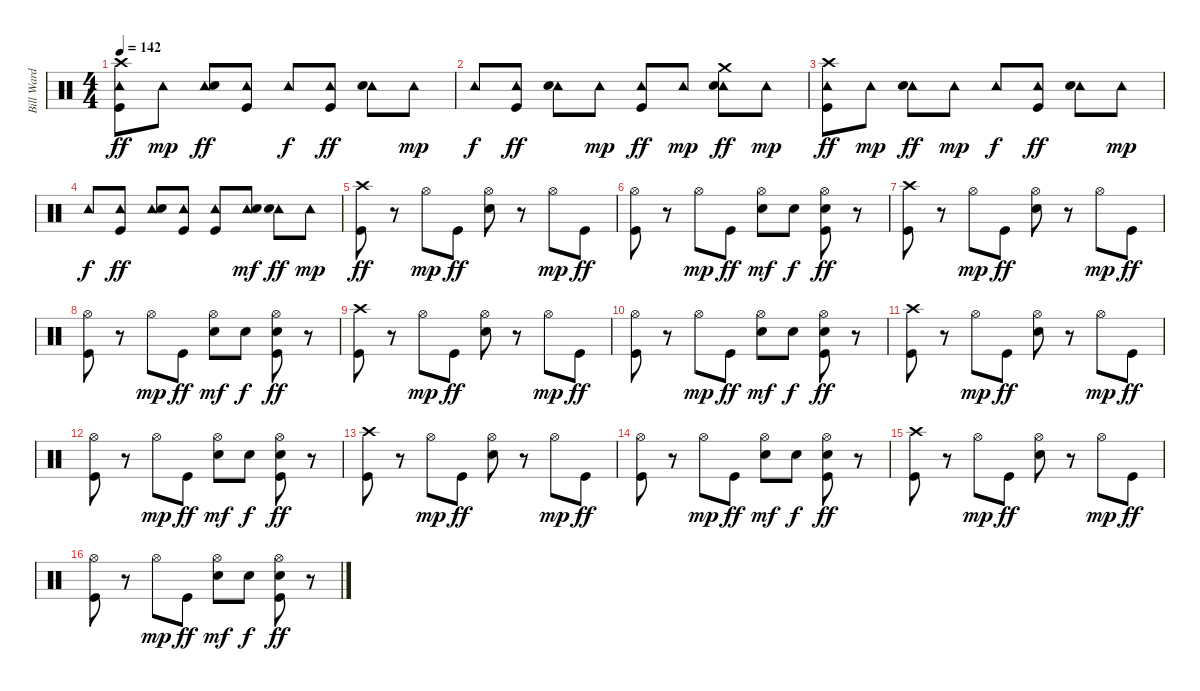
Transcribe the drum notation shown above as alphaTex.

\track ("Bill Ward" "Bill Ward") {instrument percussion}
\staff {score}
\articulation defaults
\ts (4 4)
\tempo 142
\clef neutral
\ks c
("Crash high (hit)" "Tambourine (hit)" "Kick (hit)").8{dy ff} "Tambourine (hit)".8{dy mp} ("Tambourine (hit)" "Snare (hit) 2").8{dy ff} ("Tambourine (hit)" "Kick (hit)").8 "Tambourine (hit)".8{dy f} ("Tambourine (hit)" "Kick (hit)").8{dy ff} ("Tambourine (hit)" "Snare (hit) 2").8 "Tambourine (hit)".8{dy mp} |
"Tambourine (hit)".8{dy f} ("Tambourine (hit)" "Kick (hit)").8{dy ff} ("Tambourine (hit)" "Snare (hit) 2").8 "Tambourine (hit)".8{dy mp} ("Tambourine (hit)" "Kick (hit)").8{dy ff} "Tambourine (hit)".8{dy mp} ("Crash medium (hit)" "Tambourine (hit)" "Snare (hit) 2").8{dy ff} "Tambourine (hit)".8{dy mp} |
("Crash high (hit)" "Tambourine (hit)" "Kick (hit)").8{dy ff} "Tambourine (hit)".8{dy mp} ("Tambourine (hit)" "Snare (hit) 2").8{dy ff} "Tambourine (hit)".8{dy mp} "Tambourine (hit)".8{dy f} ("Tambourine (hit)" "Kick (hit)").8{dy ff} ("Tambourine (hit)" "Snare (hit) 2").8 "Tambourine (hit)".8{dy mp} |
"Tambourine (hit)".8{dy f} ("Tambourine (hit)" "Kick (hit)").8{dy ff} ("Tambourine (hit)" "Snare (hit) 2").8 ("Tambourine (hit)" "Kick (hit)").8 ("Tambourine (hit)" "Kick (hit)").8 ("Tambourine (hit)" "Snare (hit) 2").8{dy mf} ("Tambourine (hit)" "Snare (hit) 2").8{dy ff} "Tambourine (hit)".8{dy mp} |
("Crash high (hit)" "Kick (hit)").8{dy ff} r.8 "Hi-Hat (open)".8{dy mp} "Kick (hit)".8{dy ff} ("Hi-Hat (open)" "Snare (hit) 2").8 r.8 "Hi-Hat (open)".8{dy mp} "Kick (hit)".8{dy ff} |
("Hi-Hat (open)" "Kick (hit)").8 r.8 "Hi-Hat (open)".8{dy mp} "Kick (hit)".8{dy ff} ("Hi-Hat (open)" "Snare (hit) 2").8{dy mf} "Snare (hit) 2".8{dy f} ("Hi-Hat (open)" "Snare (hit) 2" "Kick (hit)").8{dy ff} r.8 |
("Crash high (hit)" "Kick (hit)").8 r.8 "Hi-Hat (open)".8{dy mp} "Kick (hit)".8{dy ff} ("Hi-Hat (open)" "Snare (hit) 2").8 r.8 "Hi-Hat (open)".8{dy mp} "Kick (hit)".8{dy ff} |
("Hi-Hat (open)" "Kick (hit)").8 r.8 "Hi-Hat (open)".8{dy mp} "Kick (hit)".8{dy ff} ("Hi-Hat (open)" "Snare (hit) 2").8{dy mf} "Snare (hit) 2".8{dy f} ("Hi-Hat (open)" "Snare (hit) 2" "Kick (hit)").8{dy ff} r.8 |
("Crash high (hit)" "Kick (hit)").8 r.8 "Hi-Hat (open)".8{dy mp} "Kick (hit)".8{dy ff} ("Hi-Hat (open)" "Snare (hit) 2").8 r.8 "Hi-Hat (open)".8{dy mp} "Kick (hit)".8{dy ff} |
("Hi-Hat (open)" "Kick (hit)").8 r.8 "Hi-Hat (open)".8{dy mp} "Kick (hit)".8{dy ff} ("Hi-Hat (open)" "Snare (hit) 2").8{dy mf} "Snare (hit) 2".8{dy f} ("Hi-Hat (open)" "Snare (hit) 2" "Kick (hit)").8{dy ff} r.8 |
("Crash high (hit)" "Kick (hit)").8 r.8 "Hi-Hat (open)".8{dy mp} "Kick (hit)".8{dy ff} ("Hi-Hat (open)" "Snare (hit) 2").8 r.8 "Hi-Hat (open)".8{dy mp} "Kick (hit)".8{dy ff} |
("Hi-Hat (open)" "Kick (hit)").8 r.8 "Hi-Hat (open)".8{dy mp} "Kick (hit)".8{dy ff} ("Hi-Hat (open)" "Snare (hit) 2").8{dy mf} "Snare (hit) 2".8{dy f} ("Hi-Hat (open)" "Snare (hit) 2" "Kick (hit)").8{dy ff} r.8 |
("Crash high (hit)" "Kick (hit)").8 r.8 "Hi-Hat (open)".8{dy mp} "Kick (hit)".8{dy ff} ("Hi-Hat (open)" "Snare (hit) 2").8 r.8 "Hi-Hat (open)".8{dy mp} "Kick (hit)".8{dy ff} |
("Hi-Hat (open)" "Kick (hit)").8 r.8 "Hi-Hat (open)".8{dy mp} "Kick (hit)".8{dy ff} ("Hi-Hat (open)" "Snare (hit) 2").8{dy mf} "Snare (hit) 2".8{dy f} ("Hi-Hat (open)" "Snare (hit) 2" "Kick (hit)").8{dy ff} r.8 |
("Crash high (hit)" "Kick (hit)").8 r.8 "Hi-Hat (open)".8{dy mp} "Kick (hit)".8{dy ff} ("Hi-Hat (open)" "Snare (hit) 2").8 r.8 "Hi-Hat (open)".8{dy mp} "Kick (hit)".8{dy ff} |
("Hi-Hat (open)" "Kick (hit)").8 r.8 "Hi-Hat (open)".8{dy mp} "Kick (hit)".8{dy ff} ("Hi-Hat (open)" "Snare (hit) 2").8{dy mf} "Snare (hit) 2".8{dy f} ("Hi-Hat (open)" "Snare (hit) 2" "Kick (hit)").8{dy ff} r.8
